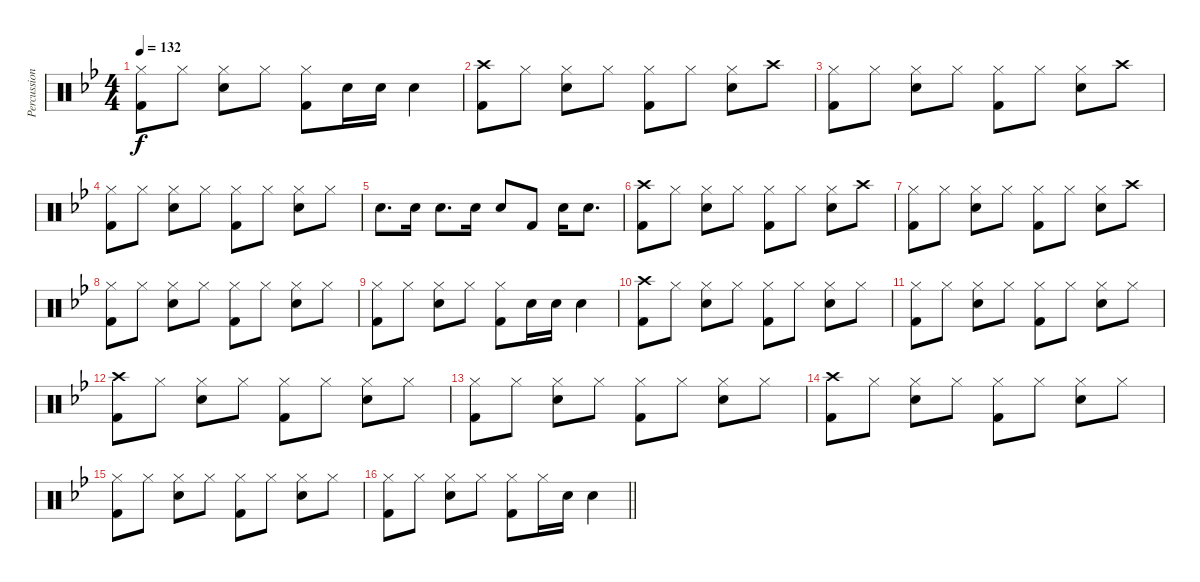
\track ("Percussion" "Percussion") {instrument percussion}
\staff {score}
\articulation defaults
\ts (4 4)
\tempo 132
\clef neutral
\ks bb
("Hi-Hat (closed)" "Kick (hit) 2").8{dy f} "Hi-Hat (closed)".8 ("Hi-Hat (closed)" "Snare (hit) 2").8 "Hi-Hat (closed)".8 ("Hi-Hat (closed)" "Kick (hit) 2").8 "Snare (hit) 2".16 "Snare (hit) 2".16 "Snare (hit) 2".4 |
("Crash high (hit)" "Kick (hit) 2").8 "Hi-Hat (closed)".8 ("Hi-Hat (closed)" "Snare (hit) 2").8 "Hi-Hat (closed)".8 ("Hi-Hat (closed)" "Kick (hit) 2").8 "Hi-Hat (closed)".8 ("Hi-Hat (closed)" "Snare (hit) 2").8 "Crash high (hit)".8 |
("Hi-Hat (closed)" "Kick (hit) 2").8 "Hi-Hat (closed)".8 ("Hi-Hat (closed)" "Snare (hit) 2").8 "Hi-Hat (closed)".8 ("Hi-Hat (closed)" "Kick (hit) 2").8 "Hi-Hat (closed)".8 ("Hi-Hat (closed)" "Snare (hit) 2").8 "Crash high (hit)".8 |
("Hi-Hat (closed)" "Kick (hit) 2").8 "Hi-Hat (closed)".8 ("Hi-Hat (closed)" "Snare (hit) 2").8 "Hi-Hat (closed)".8 ("Hi-Hat (closed)" "Kick (hit) 2").8 "Hi-Hat (closed)".8 ("Hi-Hat (closed)" "Snare (hit) 2").8 "Hi-Hat (closed)".8 |
"Snare (hit) 2".8{d} "Snare (hit) 2".16 "Snare (hit) 2".8{d} "Snare (hit) 2".16 "Snare (hit) 2".8 "Kick (hit) 2".8 "Snare (hit) 2".16 "Snare (hit) 2".8{d} |
("Crash high (hit)" "Kick (hit) 2").8 "Hi-Hat (closed)".8 ("Hi-Hat (closed)" "Snare (hit) 2").8 "Hi-Hat (closed)".8 ("Hi-Hat (closed)" "Kick (hit) 2").8 "Hi-Hat (closed)".8 ("Hi-Hat (closed)" "Snare (hit) 2").8 "Crash high (hit)".8 |
("Hi-Hat (closed)" "Kick (hit) 2").8 "Hi-Hat (closed)".8 ("Hi-Hat (closed)" "Snare (hit) 2").8 "Hi-Hat (closed)".8 ("Hi-Hat (closed)" "Kick (hit) 2").8 "Hi-Hat (closed)".8 ("Hi-Hat (closed)" "Snare (hit) 2").8 "Crash high (hit)".8 |
("Hi-Hat (closed)" "Kick (hit) 2").8 "Hi-Hat (closed)".8 ("Hi-Hat (closed)" "Snare (hit) 2").8 "Hi-Hat (closed)".8 ("Hi-Hat (closed)" "Kick (hit) 2").8 "Hi-Hat (closed)".8 ("Hi-Hat (closed)" "Snare (hit) 2").8 "Hi-Hat (closed)".8 |
("Hi-Hat (closed)" "Kick (hit) 2").8 "Hi-Hat (closed)".8 ("Hi-Hat (closed)" "Snare (hit) 2").8 "Hi-Hat (closed)".8 ("Hi-Hat (closed)" "Kick (hit) 2").8 "Snare (hit) 2".16 "Snare (hit) 2".16 "Snare (hit) 2".4 |
("Crash high (hit)" "Kick (hit) 2").8 "Hi-Hat (closed)".8 ("Hi-Hat (closed)" "Snare (hit) 2").8 "Hi-Hat (closed)".8 ("Hi-Hat (closed)" "Kick (hit) 2").8 "Hi-Hat (closed)".8 ("Hi-Hat (closed)" "Snare (hit) 2").8 "Hi-Hat (closed)".8 |
("Hi-Hat (closed)" "Kick (hit) 2").8 "Hi-Hat (closed)".8 ("Hi-Hat (closed)" "Snare (hit) 2").8 "Hi-Hat (closed)".8 ("Hi-Hat (closed)" "Kick (hit) 2").8 "Hi-Hat (closed)".8 ("Hi-Hat (closed)" "Snare (hit) 2").8 "Hi-Hat (closed)".8 |
("Crash high (hit)" "Kick (hit) 2").8 "Hi-Hat (closed)".8 ("Hi-Hat (closed)" "Snare (hit) 2").8 "Hi-Hat (closed)".8 ("Hi-Hat (closed)" "Kick (hit) 2").8 "Hi-Hat (closed)".8 ("Hi-Hat (closed)" "Snare (hit) 2").8 "Hi-Hat (closed)".8 |
("Hi-Hat (closed)" "Kick (hit) 2").8 "Hi-Hat (closed)".8 ("Hi-Hat (closed)" "Snare (hit) 2").8 "Hi-Hat (closed)".8 ("Hi-Hat (closed)" "Kick (hit) 2").8 "Hi-Hat (closed)".8 ("Hi-Hat (closed)" "Snare (hit) 2").8 "Hi-Hat (closed)".8 |
("Crash high (hit)" "Kick (hit) 2").8 "Hi-Hat (closed)".8 ("Hi-Hat (closed)" "Snare (hit) 2").8 "Hi-Hat (closed)".8 ("Hi-Hat (closed)" "Kick (hit) 2").8 "Hi-Hat (closed)".8 ("Hi-Hat (closed)" "Snare (hit) 2").8 "Hi-Hat (closed)".8 |
("Hi-Hat (closed)" "Kick (hit) 2").8 "Hi-Hat (closed)".8 ("Hi-Hat (closed)" "Snare (hit) 2").8 "Hi-Hat (closed)".8 ("Hi-Hat (closed)" "Kick (hit) 2").8 "Hi-Hat (closed)".8 ("Hi-Hat (closed)" "Snare (hit) 2").8 "Hi-Hat (closed)".8 |
\barLineRight lightlight
("Hi-Hat (closed)" "Kick (hit) 2").8 "Hi-Hat (closed)".8 ("Hi-Hat (closed)" "Snare (hit) 2").8 "Hi-Hat (closed)".8 ("Hi-Hat (closed)" "Kick (hit) 2").8 "Hi-Hat (closed)".16 "Snare (hit) 2".16 "Snare (hit) 2".4
